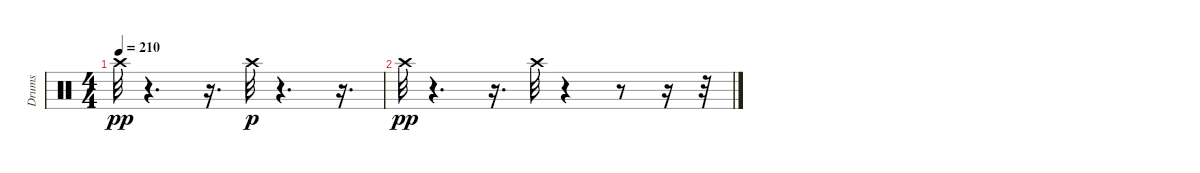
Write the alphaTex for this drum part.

\track ("Drums" "Drums") {instrument percussion}
\staff {score}
\articulation defaults
\ts (4 4)
\tempo 210
\clef neutral
\ks c "Crash high (hit)".32{dy pp}
r.4{d} r.16{d} "Crash high (hit)".32{dy p} r.4{d} r.16{d} |
"Crash high (hit)".32{dy pp} r.4{d} r.16{d} "Crash high (hit)".32 r.4 r.8 r.16 r.32
